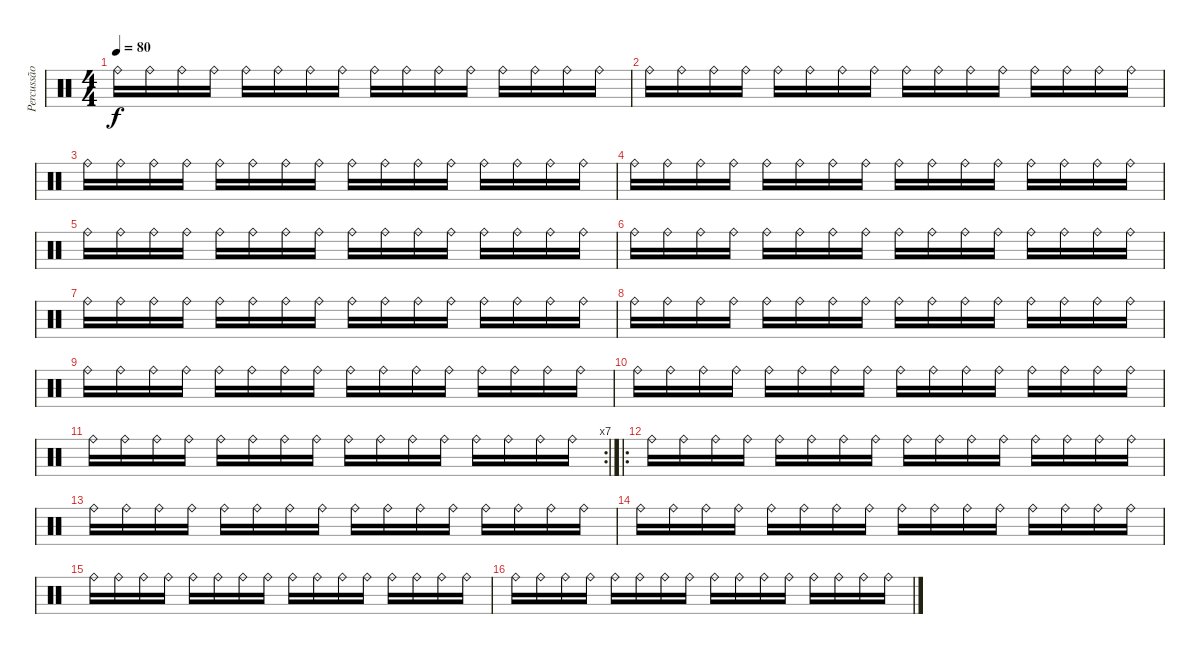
\track ("Percussão" "Percussão") {instrument percussion}
\staff {score}
\articulation defaults
\ts (4 4)
\tempo 80
\clef neutral
\ks c "Ride (bell)".16{dy f} "Ride (bell)".16 "Ride (bell)".16 "Ride (bell)".16 "Ride (bell)".16 "Ride (bell)".16 "Ride (bell)".16 "Ride (bell)".16 "Ride (bell)".16 "Ride (bell)".16 "Ride (bell)".16 "Ride (bell)".16 "Ride (bell)".16 "Ride (bell)".16 "Ride (bell)".16 "Ride (bell)".16
|
"Ride (bell)".16 "Ride (bell)".16 "Ride (bell)".16 "Ride (bell)".16 "Ride (bell)".16 "Ride (bell)".16 "Ride (bell)".16 "Ride (bell)".16 "Ride (bell)".16 "Ride (bell)".16 "Ride (bell)".16 "Ride (bell)".16 "Ride (bell)".16 "Ride (bell)".16 "Ride (bell)".16 "Ride (bell)".16 |
"Ride (bell)".16 "Ride (bell)".16 "Ride (bell)".16 "Ride (bell)".16 "Ride (bell)".16 "Ride (bell)".16 "Ride (bell)".16 "Ride (bell)".16 "Ride (bell)".16 "Ride (bell)".16 "Ride (bell)".16 "Ride (bell)".16 "Ride (bell)".16 "Ride (bell)".16 "Ride (bell)".16 "Ride (bell)".16 |
"Ride (bell)".16 "Ride (bell)".16 "Ride (bell)".16 "Ride (bell)".16 "Ride (bell)".16 "Ride (bell)".16 "Ride (bell)".16 "Ride (bell)".16 "Ride (bell)".16 "Ride (bell)".16 "Ride (bell)".16 "Ride (bell)".16 "Ride (bell)".16 "Ride (bell)".16 "Ride (bell)".16 "Ride (bell)".16 |
"Ride (bell)".16 "Ride (bell)".16 "Ride (bell)".16 "Ride (bell)".16 "Ride (bell)".16 "Ride (bell)".16 "Ride (bell)".16 "Ride (bell)".16 "Ride (bell)".16 "Ride (bell)".16 "Ride (bell)".16 "Ride (bell)".16 "Ride (bell)".16 "Ride (bell)".16 "Ride (bell)".16 "Ride (bell)".16 |
"Ride (bell)".16 "Ride (bell)".16 "Ride (bell)".16 "Ride (bell)".16 "Ride (bell)".16 "Ride (bell)".16 "Ride (bell)".16 "Ride (bell)".16 "Ride (bell)".16 "Ride (bell)".16 "Ride (bell)".16 "Ride (bell)".16 "Ride (bell)".16 "Ride (bell)".16 "Ride (bell)".16 "Ride (bell)".16 |
"Ride (bell)".16 "Ride (bell)".16 "Ride (bell)".16 "Ride (bell)".16 "Ride (bell)".16 "Ride (bell)".16 "Ride (bell)".16 "Ride (bell)".16 "Ride (bell)".16 "Ride (bell)".16 "Ride (bell)".16 "Ride (bell)".16 "Ride (bell)".16 "Ride (bell)".16 "Ride (bell)".16 "Ride (bell)".16 |
"Ride (bell)".16 "Ride (bell)".16 "Ride (bell)".16 "Ride (bell)".16 "Ride (bell)".16 "Ride (bell)".16 "Ride (bell)".16 "Ride (bell)".16 "Ride (bell)".16 "Ride (bell)".16 "Ride (bell)".16 "Ride (bell)".16 "Ride (bell)".16 "Ride (bell)".16 "Ride (bell)".16 "Ride (bell)".16 |
"Ride (bell)".16 "Ride (bell)".16 "Ride (bell)".16 "Ride (bell)".16 "Ride (bell)".16 "Ride (bell)".16 "Ride (bell)".16 "Ride (bell)".16 "Ride (bell)".16 "Ride (bell)".16 "Ride (bell)".16 "Ride (bell)".16 "Ride (bell)".16 "Ride (bell)".16 "Ride (bell)".16 "Ride (bell)".16 |
"Ride (bell)".16 "Ride (bell)".16 "Ride (bell)".16 "Ride (bell)".16 "Ride (bell)".16 "Ride (bell)".16 "Ride (bell)".16 "Ride (bell)".16 "Ride (bell)".16 "Ride (bell)".16 "Ride (bell)".16 "Ride (bell)".16 "Ride (bell)".16 "Ride (bell)".16 "Ride (bell)".16 "Ride (bell)".16 |
\rc 7 "Ride (bell)".16 "Ride (bell)".16 "Ride (bell)".16 "Ride (bell)".16 "Ride (bell)".16 "Ride (bell)".16 "Ride (bell)".16 "Ride (bell)".16 "Ride (bell)".16 "Ride (bell)".16 "Ride (bell)".16 "Ride (bell)".16 "Ride (bell)".16 "Ride (bell)".16 "Ride (bell)".16 "Ride (bell)".16
|
\ro "Ride (bell)".16 "Ride (bell)".16 "Ride (bell)".16 "Ride (bell)".16 "Ride (bell)".16 "Ride (bell)".16 "Ride (bell)".16 "Ride (bell)".16 "Ride (bell)".16 "Ride (bell)".16 "Ride (bell)".16 "Ride (bell)".16 "Ride (bell)".16 "Ride (bell)".16 "Ride (bell)".16 "Ride (bell)".16
|
"Ride (bell)".16 "Ride (bell)".16 "Ride (bell)".16 "Ride (bell)".16 "Ride (bell)".16 "Ride (bell)".16 "Ride (bell)".16 "Ride (bell)".16 "Ride (bell)".16 "Ride (bell)".16 "Ride (bell)".16 "Ride (bell)".16 "Ride (bell)".16 "Ride (bell)".16 "Ride (bell)".16 "Ride (bell)".16 |
"Ride (bell)".16 "Ride (bell)".16 "Ride (bell)".16 "Ride (bell)".16 "Ride (bell)".16 "Ride (bell)".16 "Ride (bell)".16 "Ride (bell)".16 "Ride (bell)".16 "Ride (bell)".16 "Ride (bell)".16 "Ride (bell)".16 "Ride (bell)".16 "Ride (bell)".16 "Ride (bell)".16 "Ride (bell)".16 |
"Ride (bell)".16 "Ride (bell)".16 "Ride (bell)".16 "Ride (bell)".16 "Ride (bell)".16 "Ride (bell)".16 "Ride (bell)".16 "Ride (bell)".16 "Ride (bell)".16 "Ride (bell)".16 "Ride (bell)".16 "Ride (bell)".16 "Ride (bell)".16 "Ride (bell)".16 "Ride (bell)".16 "Ride (bell)".16 |
"Ride (bell)".16 "Ride (bell)".16 "Ride (bell)".16 "Ride (bell)".16 "Ride (bell)".16 "Ride (bell)".16 "Ride (bell)".16 "Ride (bell)".16 "Ride (bell)".16 "Ride (bell)".16 "Ride (bell)".16 "Ride (bell)".16 "Ride (bell)".16 "Ride (bell)".16 "Ride (bell)".16 "Ride (bell)".16
